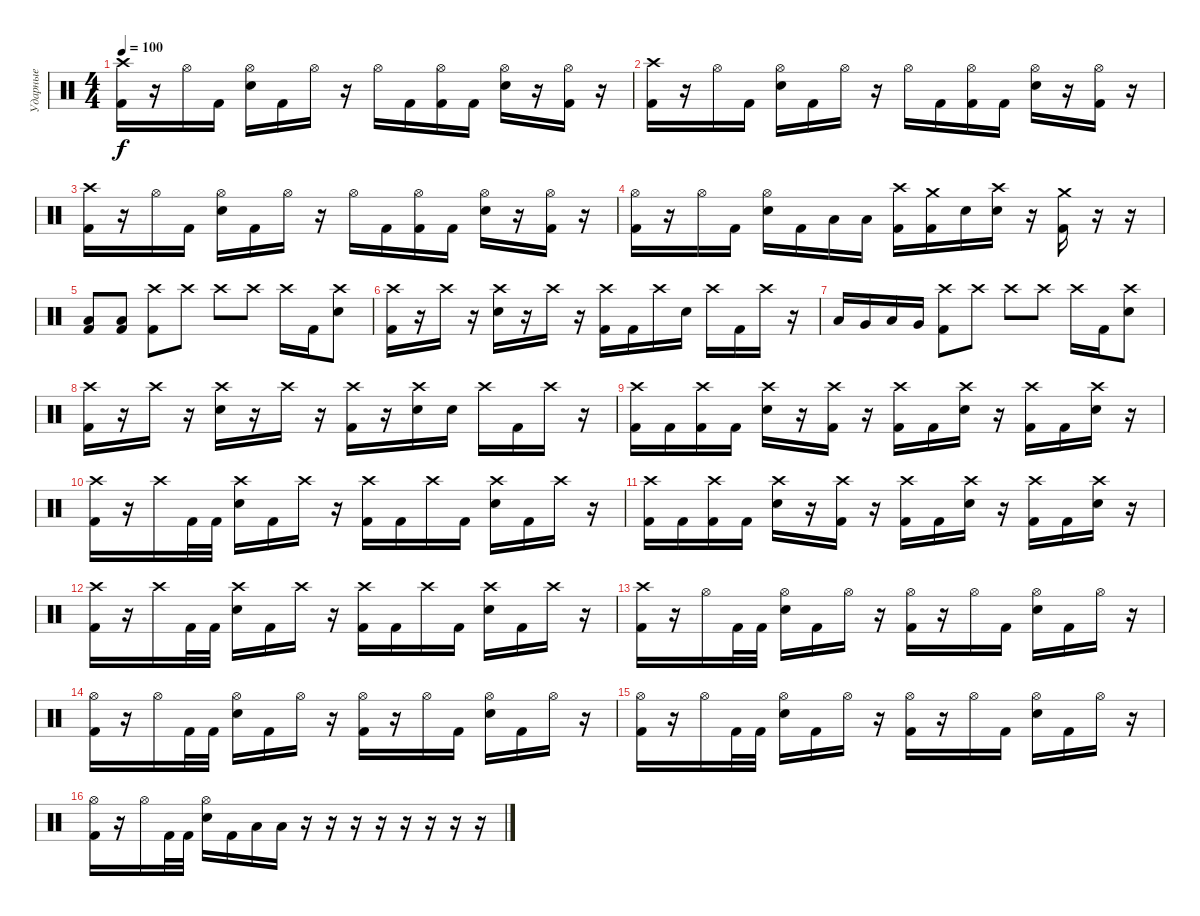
\track ("Ударные" "Ударные") {instrument percussion}
\staff {score}
\articulation defaults
\ts (4 4)
\tempo 100
\clef neutral
\ks c
("Crash high (hit)" "Kick (hit) 2").16{dy f} r.16 "Hi-Hat (open)".16 "Kick (hit) 2".16 ("Hi-Hat (open)" "Electric Snare (hit)").16 "Kick (hit) 2".16 "Hi-Hat (open)".16 r.16 "Hi-Hat (open)".16 "Kick (hit) 2".16 ("Hi-Hat (open)" "Kick (hit) 2").16 "Kick (hit) 2".16 ("Hi-Hat (open)" "Electric Snare (hit)").16 r.16 ("Hi-Hat (open)" "Kick (hit) 2").16 r.16 |
("Crash high (hit)" "Kick (hit) 2").16 r.16 "Hi-Hat (open)".16 "Kick (hit) 2".16 ("Hi-Hat (open)" "Electric Snare (hit)").16 "Kick (hit) 2".16 "Hi-Hat (open)".16 r.16 "Hi-Hat (open)".16 "Kick (hit) 2".16 ("Hi-Hat (open)" "Kick (hit) 2").16 "Kick (hit) 2".16 ("Hi-Hat (open)" "Electric Snare (hit)").16 r.16 ("Hi-Hat (open)" "Kick (hit) 2").16 r.16 |
("Crash high (hit)" "Kick (hit) 2").16 r.16 "Hi-Hat (open)".16 "Kick (hit) 2".16 ("Hi-Hat (open)" "Electric Snare (hit)").16 "Kick (hit) 2".16 "Hi-Hat (open)".16 r.16 "Hi-Hat (open)".16 "Kick (hit) 2".16 ("Hi-Hat (open)" "Kick (hit) 2").16 "Kick (hit) 2".16 ("Hi-Hat (open)" "Electric Snare (hit)").16 r.16 ("Hi-Hat (open)" "Kick (hit) 2").16 r.16 |
("Hi-Hat (open)" "Kick (hit) 2").16 r.16 "Hi-Hat (open)".16 "Kick (hit) 2".16 ("Hi-Hat (open)" "Electric Snare (hit)").16 "Kick (hit) 2".16 "Low Floor Tom (hit)".16 "Low Floor Tom (hit)".16 ("Crash high (hit)" "Kick (hit) 2").16 ("Crash medium (hit)" "Kick (hit) 2").16 "Electric Snare (hit)".16 ("Crash high (hit)" "Electric Snare (hit)").16 r.16 ("Crash medium (hit)" "Kick (hit) 2").16 r.16 r.16 |
("Low Floor Tom (hit)" "Kick (hit) 2").8 ("Low Floor Tom (hit)" "Kick (hit) 2").8 ("Crash high (hit)" "Kick (hit) 2").8 "Crash high (hit)".8 "Crash high (hit)".8 "Crash high (hit)".8 "Crash high (hit)".16 "Kick (hit) 2".16 ("Crash high (hit)" "Electric Snare (hit)").8 |
("Crash high (hit)" "Kick (hit) 2").16 r.16 "Crash high (hit)".16 r.16 ("Crash high (hit)" "Electric Snare (hit)").16 r.16 "Crash high (hit)".16 r.16 ("Crash high (hit)" "Kick (hit) 2").16 "Kick (hit) 2".16 "Crash high (hit)".16 "Electric Snare (hit)".16 "Crash high (hit)".16 "Kick (hit) 2".16 "Crash high (hit)".16 r.16 |
"Low Tom (hit)".16 "Very Low Tom (hit)".16 "Low Floor Tom (hit)".16 "Very Low Tom (hit)".16 ("Crash high (hit)" "Kick (hit) 2").8 "Crash high (hit)".8 "Crash high (hit)".8 "Crash high (hit)".8 "Crash high (hit)".16 "Kick (hit) 2".16 ("Crash high (hit)" "Electric Snare (hit)").8 |
("Crash high (hit)" "Kick (hit) 2").16 r.16 "Crash high (hit)".16 r.16 ("Crash high (hit)" "Electric Snare (hit)").16 r.16 "Crash high (hit)".16 r.16 ("Crash high (hit)" "Kick (hit) 2").16 r.16 ("Crash high (hit)" "Electric Snare (hit)").16 "Electric Snare (hit)".16 "Crash high (hit)".16 "Kick (hit) 2".16 "Crash high (hit)".16 r.16 |
("Crash high (hit)" "Kick (hit) 2").16 "Kick (hit) 2".16 ("Crash high (hit)" "Kick (hit) 2").16 "Kick (hit) 2".16 ("Crash high (hit)" "Electric Snare (hit)").16 r.16 ("Crash high (hit)" "Kick (hit) 2").16 r.16 ("Crash high (hit)" "Kick (hit) 2").16 "Kick (hit) 2".16 ("Crash high (hit)" "Electric Snare (hit)").16 r.16 ("Crash high (hit)" "Kick (hit) 2").16 "Kick (hit) 2".16 ("Crash high (hit)" "Electric Snare (hit)").16 r.16 |
("Crash high (hit)" "Kick (hit) 2").16 r.16 "Crash high (hit)".16 "Kick (hit) 2".32 "Kick (hit) 2".32 ("Crash high (hit)" "Electric Snare (hit)").16 "Kick (hit) 2".16 "Crash high (hit)".16 r.16 ("Crash high (hit)" "Kick (hit) 2").16 "Kick (hit) 2".16 "Crash high (hit)".16 "Kick (hit) 2".16 ("Crash high (hit)" "Electric Snare (hit)").16 "Kick (hit) 2".16 "Crash high (hit)".16 r.16 |
("Crash high (hit)" "Kick (hit) 2").16 "Kick (hit) 2".16 ("Crash high (hit)" "Kick (hit) 2").16 "Kick (hit) 2".16 ("Crash high (hit)" "Electric Snare (hit)").16 r.16 ("Crash high (hit)" "Kick (hit) 2").16 r.16 ("Crash high (hit)" "Kick (hit) 2").16 "Kick (hit) 2".16 ("Crash high (hit)" "Electric Snare (hit)").16 r.16 ("Crash high (hit)" "Kick (hit) 2").16 "Kick (hit) 2".16 ("Crash high (hit)" "Electric Snare (hit)").16 r.16 |
("Crash high (hit)" "Kick (hit) 2").16 r.16 "Crash high (hit)".16 "Kick (hit) 2".32 "Kick (hit) 2".32 ("Crash high (hit)" "Electric Snare (hit)").16 "Kick (hit) 2".16 "Crash high (hit)".16 r.16 ("Crash high (hit)" "Kick (hit) 2").16 "Kick (hit) 2".16 "Crash high (hit)".16 "Kick (hit) 2".16 ("Crash high (hit)" "Electric Snare (hit)").16 "Kick (hit) 2".16 "Crash high (hit)".16 r.16 |
("Crash high (hit)" "Kick (hit) 2").16 r.16 "Hi-Hat (open)".16 "Kick (hit) 2".32 "Kick (hit) 2".32 ("Hi-Hat (open)" "Electric Snare (hit)").16 "Kick (hit) 2".16 "Hi-Hat (open)".16 r.16 ("Hi-Hat (open)" "Kick (hit) 2").16 r.16 "Hi-Hat (open)".16 "Kick (hit) 2".16 ("Hi-Hat (open)" "Electric Snare (hit)").16 "Kick (hit) 2".16 "Hi-Hat (open)".16 r.16 |
("Hi-Hat (open)" "Kick (hit) 2").16 r.16 "Hi-Hat (open)".16 "Kick (hit) 2".32 "Kick (hit) 2".32 ("Hi-Hat (open)" "Electric Snare (hit)").16 "Kick (hit) 2".16 "Hi-Hat (open)".16 r.16 ("Hi-Hat (open)" "Kick (hit) 2").16 r.16 "Hi-Hat (open)".16 "Kick (hit) 2".16 ("Hi-Hat (open)" "Electric Snare (hit)").16 "Kick (hit) 2".16 "Hi-Hat (open)".16 r.16 |
("Hi-Hat (open)" "Kick (hit) 2").16 r.16 "Hi-Hat (open)".16 "Kick (hit) 2".32 "Kick (hit) 2".32 ("Hi-Hat (open)" "Electric Snare (hit)").16 "Kick (hit) 2".16 "Hi-Hat (open)".16 r.16 ("Hi-Hat (open)" "Kick (hit) 2").16 r.16 "Hi-Hat (open)".16 "Kick (hit) 2".16 ("Hi-Hat (open)" "Electric Snare (hit)").16 "Kick (hit) 2".16 "Hi-Hat (open)".16 r.16 |
("Hi-Hat (open)" "Kick (hit) 2").16 r.16 "Hi-Hat (open)".16 "Kick (hit) 2".32 "Kick (hit) 2".32 ("Hi-Hat (open)" "Electric Snare (hit)").16 "Kick (hit) 2".16 "Low Floor Tom (hit)".16 "Low Floor Tom (hit)".16 r.16 r.16 r.16 r.16 r.16 r.16 r.16 r.16
